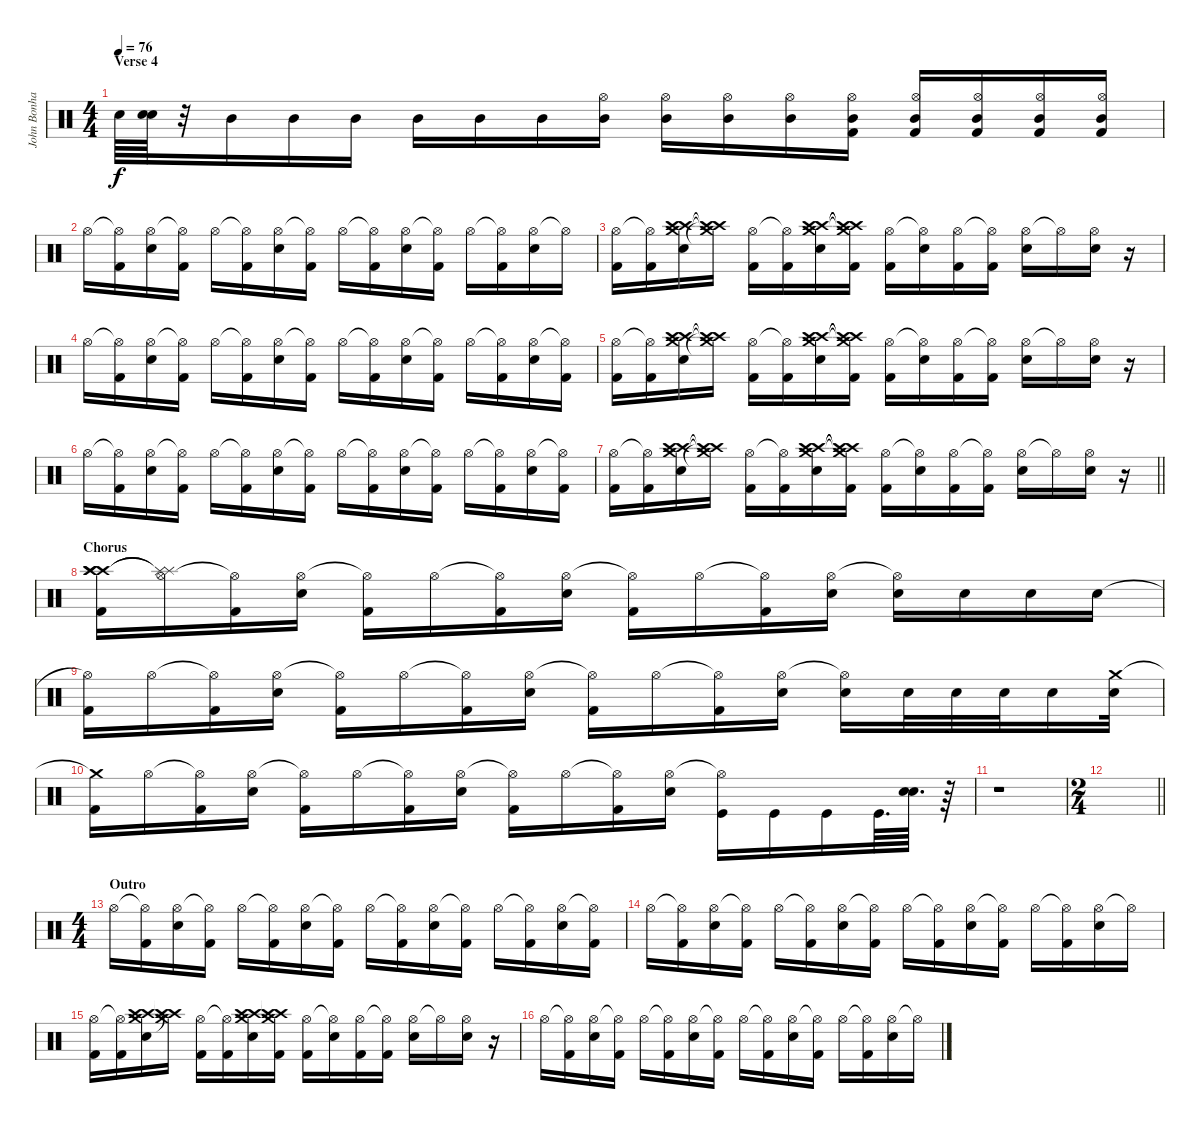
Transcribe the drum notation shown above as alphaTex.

\track ("John Bonham" "John Bonha") {instrument percussion}
\staff {score}
\articulation defaults
\ts (4 4)
\section ("" "Verse 4")
\tempo 76
\clef neutral
\ks c "Electric Snare (hit)".64{dy f}
("Snare (hit) 2" "Electric Snare (hit)").64 r.32 "Mid Tom (hit)".16 "Mid Tom (hit)".16 "Mid Tom (hit)".16 "Mid Tom (hit)".16 "Mid Tom (hit)".16 "Mid Tom (hit)".16 ("Hi-Hat (open)" "Mid Tom (hit)").16 ("Hi-Hat (open)" "Mid Tom (hit)").16 ("Hi-Hat (open)" "Mid Tom (hit)").16 ("Hi-Hat (open)" "Mid Tom (hit)").16 ("Hi-Hat (open)" "Mid Tom (hit)" "Kick (hit) 2").16 ("Hi-Hat (open)" "Mid Tom (hit)" "Kick (hit) 2").16 ("Hi-Hat (open)" "Mid Tom (hit)" "Kick (hit) 2").16 ("Hi-Hat (open)" "Mid Tom (hit)" "Kick (hit) 2").16 ("Hi-Hat (open)" "Mid Tom (hit)" "Kick (hit) 2").16 |
"Hi-Hat (open)".16 ("Hi-Hat (open)"{t} "Kick (hit) 2").16 ("Hi-Hat (open)" "Electric Snare (hit)").16 ("Hi-Hat (open)"{t} "Kick (hit) 2").16 "Hi-Hat (open)".16 ("Hi-Hat (open)"{t} "Kick (hit) 2").16 ("Hi-Hat (open)" "Electric Snare (hit)").16 ("Hi-Hat (open)"{t} "Kick (hit) 2").16 "Hi-Hat (open)".16 ("Hi-Hat (open)"{t} "Kick (hit) 2").16 ("Hi-Hat (open)" "Electric Snare (hit)").16 ("Hi-Hat (open)"{t} "Kick (hit) 2").16 "Hi-Hat (open)".16 ("Hi-Hat (open)"{t} "Kick (hit) 2").16 ("Hi-Hat (open)" "Electric Snare (hit)").16 "Hi-Hat (open)"{t}.16 |
("Hi-Hat (open)" "Kick (hit) 2").16 ("Hi-Hat (open)"{t} "Kick (hit) 2").16 ("Crash high (hit)" "Crash medium (hit)" "Electric Snare (hit)" "Crash high (hit)").16 ("Crash high (hit)"{t} "Crash medium (hit)"{t} "Crash high (hit)"{t}).16 ("Hi-Hat (open)" "Kick (hit) 2").16 ("Hi-Hat (open)"{t} "Kick (hit) 2").16 ("Crash high (hit)" "Crash medium (hit)" "Electric Snare (hit)" "Crash high (hit)").16 ("Crash high (hit)"{t} "Crash medium (hit)"{t} "Kick (hit) 2" "Crash high (hit)"{t}).16 ("Hi-Hat (open)" "Kick (hit) 2").16 ("Hi-Hat (open)"{t} "Electric Snare (hit)").16 ("Hi-Hat (open)" "Kick (hit) 2").16 ("Hi-Hat (open)"{t} "Kick (hit) 2").16 ("Hi-Hat (open)" "Electric Snare (hit)").16 "Hi-Hat (open)"{t}.16 ("Hi-Hat (open)" "Electric Snare (hit)").16 r.16 |
"Hi-Hat (open)".16 ("Hi-Hat (open)"{t} "Kick (hit) 2").16 ("Hi-Hat (open)" "Electric Snare (hit)").16 ("Hi-Hat (open)"{t} "Kick (hit) 2").16 "Hi-Hat (open)".16 ("Hi-Hat (open)"{t} "Kick (hit) 2").16 ("Hi-Hat (open)" "Electric Snare (hit)").16 ("Hi-Hat (open)"{t} "Kick (hit) 2").16 "Hi-Hat (open)".16 ("Hi-Hat (open)"{t} "Kick (hit) 2").16 ("Hi-Hat (open)" "Electric Snare (hit)").16 ("Hi-Hat (open)"{t} "Kick (hit) 2").16 "Hi-Hat (open)".16 ("Hi-Hat (open)"{t} "Kick (hit) 2").16 ("Hi-Hat (open)" "Electric Snare (hit)").16 ("Hi-Hat (open)"{t} "Kick (hit) 2").16 |
("Hi-Hat (open)" "Kick (hit) 2").16 ("Hi-Hat (open)"{t} "Kick (hit) 2").16 ("Crash high (hit)" "Crash medium (hit)" "Electric Snare (hit)" "Crash high (hit)").16 ("Crash high (hit)"{t} "Crash medium (hit)"{t} "Crash high (hit)"{t}).16 ("Hi-Hat (open)" "Kick (hit) 2").16 ("Hi-Hat (open)"{t} "Kick (hit) 2").16 ("Crash high (hit)" "Crash medium (hit)" "Electric Snare (hit)" "Crash high (hit)").16 ("Crash high (hit)"{t} "Crash medium (hit)"{t} "Kick (hit) 2" "Crash high (hit)"{t}).16 ("Hi-Hat (open)" "Kick (hit) 2").16 ("Hi-Hat (open)"{t} "Electric Snare (hit)").16 ("Hi-Hat (open)" "Kick (hit) 2").16 ("Hi-Hat (open)"{t} "Kick (hit) 2").16 ("Hi-Hat (open)" "Electric Snare (hit)").16 "Hi-Hat (open)"{t}.16 ("Hi-Hat (open)" "Electric Snare (hit)").16 r.16 |
"Hi-Hat (open)".16 ("Hi-Hat (open)"{t} "Kick (hit) 2").16 ("Hi-Hat (open)" "Electric Snare (hit)").16 ("Hi-Hat (open)"{t} "Kick (hit) 2").16 "Hi-Hat (open)".16 ("Hi-Hat (open)"{t} "Kick (hit) 2").16 ("Hi-Hat (open)" "Electric Snare (hit)").16 ("Hi-Hat (open)"{t} "Kick (hit) 2").16 "Hi-Hat (open)".16 ("Hi-Hat (open)"{t} "Kick (hit) 2").16 ("Hi-Hat (open)" "Electric Snare (hit)").16 ("Hi-Hat (open)"{t} "Kick (hit) 2").16 "Hi-Hat (open)".16 ("Hi-Hat (open)"{t} "Kick (hit) 2").16 ("Hi-Hat (open)" "Electric Snare (hit)").16 ("Hi-Hat (open)"{t} "Kick (hit) 2").16 |
\barLineRight lightlight
("Hi-Hat (open)" "Kick (hit) 2").16 ("Hi-Hat (open)"{t} "Kick (hit) 2").16 ("Crash high (hit)" "Crash medium (hit)" "Electric Snare (hit)" "Crash high (hit)").16 ("Crash high (hit)"{t} "Crash medium (hit)"{t} "Crash high (hit)"{t}).16 ("Hi-Hat (open)" "Kick (hit) 2").16 ("Hi-Hat (open)"{t} "Kick (hit) 2").16 ("Crash high (hit)" "Crash medium (hit)" "Electric Snare (hit)" "Crash high (hit)").16 ("Crash high (hit)"{t} "Crash medium (hit)"{t} "Kick (hit) 2" "Crash high (hit)"{t}).16 ("Hi-Hat (open)" "Kick (hit) 2").16 ("Hi-Hat (open)"{t} "Electric Snare (hit)").16 ("Hi-Hat (open)" "Kick (hit) 2").16 ("Hi-Hat (open)"{t} "Kick (hit) 2").16 ("Hi-Hat (open)" "Electric Snare (hit)").16 "Hi-Hat (open)"{t}.16 ("Hi-Hat (open)" "Electric Snare (hit)").16 r.16 |
\section ("" "Chorus")
("Crash high (hit)" "Crash high (hit)" "Crash high (hit)" "Kick (hit) 2").16 ("Hi-Hat (open)" "Splash (hit)"{t} "Splash (hit)"{t}).16 ("Hi-Hat (open)"{t} "Kick (hit) 2").16 ("Hi-Hat (open)" "Electric Snare (hit)").16 ("Hi-Hat (open)"{t} "Kick (hit) 2").16 "Hi-Hat (open)".16 ("Hi-Hat (open)"{t} "Kick (hit) 2").16 ("Hi-Hat (open)" "Electric Snare (hit)").16 ("Hi-Hat (open)"{t} "Kick (hit) 2").16 "Hi-Hat (open)".16 ("Hi-Hat (open)"{t} "Kick (hit) 2").16 ("Hi-Hat (open)" "Electric Snare (hit)").16 ("Hi-Hat (open)"{t} "Electric Snare (hit)").16 "Electric Snare (hit)".16 "Electric Snare (hit)".16 "Electric Snare (hit)".16 |
("Hi-Hat (open)"{t} "Kick (hit) 2").16 "Hi-Hat (open)".16 ("Hi-Hat (open)"{t} "Kick (hit) 2").16 ("Hi-Hat (open)" "Electric Snare (hit)").16 ("Hi-Hat (open)"{t} "Kick (hit) 2").16 "Hi-Hat (open)".16 ("Hi-Hat (open)"{t} "Kick (hit) 2").16 ("Hi-Hat (open)" "Electric Snare (hit)").16 ("Hi-Hat (open)"{t} "Kick (hit) 2").16 "Hi-Hat (open)".16 ("Hi-Hat (open)"{t} "Kick (hit) 2").16 ("Hi-Hat (open)" "Electric Snare (hit)").16 ("Hi-Hat (open)"{t} "Electric Snare (hit)").16 "Electric Snare (hit)".32 "Electric Snare (hit)".32 "Electric Snare (hit)".32 "Electric Snare (hit)".16 ("Crash medium (hit)" "Electric Snare (hit)").32 |
("Crash medium (hit)"{t} "Kick (hit) 2").16 "Hi-Hat (open)".16 ("Hi-Hat (open)"{t} "Kick (hit) 2").16 ("Hi-Hat (open)" "Electric Snare (hit)").16 ("Hi-Hat (open)"{t} "Kick (hit) 2").16 "Hi-Hat (open)".16 ("Hi-Hat (open)"{t} "Kick (hit) 2").16 ("Hi-Hat (open)" "Electric Snare (hit)").16 ("Hi-Hat (open)"{t} "Kick (hit) 2").16 "Hi-Hat (open)".16 ("Hi-Hat (open)"{t} "Kick (hit) 2").16 ("Hi-Hat (open)" "Electric Snare (hit)").16 ("Hi-Hat (open)"{t} "Kick (hit)").16 "Kick (hit)".16 "Kick (hit)".16 "Kick (hit)".64{d} ("Snare (hit) 2" "Electric Snare (hit)").64{d} r.64 |
r.1 |
\ts (2 4)
\barLineRight lightlight
|
\ts (4 4)
\section ("" "Outro")
"Hi-Hat (open)".16 ("Hi-Hat (open)"{t} "Kick (hit) 2").16 ("Hi-Hat (open)" "Electric Snare (hit)").16 ("Hi-Hat (open)"{t} "Kick (hit) 2").16 "Hi-Hat (open)".16 ("Hi-Hat (open)"{t} "Kick (hit) 2").16 ("Hi-Hat (open)" "Electric Snare (hit)").16 ("Hi-Hat (open)"{t} "Kick (hit) 2").16 "Hi-Hat (open)".16 ("Hi-Hat (open)"{t} "Kick (hit) 2").16 ("Hi-Hat (open)" "Electric Snare (hit)").16 ("Hi-Hat (open)"{t} "Kick (hit) 2").16 "Hi-Hat (open)".16 ("Hi-Hat (open)"{t} "Kick (hit) 2").16 ("Hi-Hat (open)" "Electric Snare (hit)").16 ("Hi-Hat (open)"{t} "Kick (hit) 2").16 |
"Hi-Hat (open)".16 ("Hi-Hat (open)"{t} "Kick (hit) 2").16 ("Hi-Hat (open)" "Electric Snare (hit)").16 ("Hi-Hat (open)"{t} "Kick (hit) 2").16 "Hi-Hat (open)".16 ("Hi-Hat (open)"{t} "Kick (hit) 2").16 ("Hi-Hat (open)" "Electric Snare (hit)").16 ("Hi-Hat (open)"{t} "Kick (hit) 2").16 "Hi-Hat (open)".16 ("Hi-Hat (open)"{t} "Kick (hit) 2").16 ("Hi-Hat (open)" "Electric Snare (hit)").16 ("Hi-Hat (open)"{t} "Kick (hit) 2").16 "Hi-Hat (open)".16 ("Hi-Hat (open)"{t} "Kick (hit) 2").16 ("Hi-Hat (open)" "Electric Snare (hit)").16 "Hi-Hat (open)"{t}.16 |
("Hi-Hat (open)" "Kick (hit) 2").16 ("Hi-Hat (open)"{t} "Kick (hit) 2").16 ("Crash high (hit)" "Crash medium (hit)" "Electric Snare (hit)" "Crash high (hit)").16 ("Crash high (hit)"{t} "Crash medium (hit)"{t} "Crash high (hit)"{t}).16 ("Hi-Hat (open)" "Kick (hit) 2").16 ("Hi-Hat (open)"{t} "Kick (hit) 2").16 ("Crash high (hit)" "Crash medium (hit)" "Electric Snare (hit)" "Crash high (hit)").16 ("Crash high (hit)"{t} "Crash medium (hit)"{t} "Kick (hit) 2" "Crash high (hit)"{t}).16 ("Hi-Hat (open)" "Kick (hit) 2").16 ("Hi-Hat (open)"{t} "Electric Snare (hit)").16 ("Hi-Hat (open)" "Kick (hit) 2").16 ("Hi-Hat (open)"{t} "Kick (hit) 2").16 ("Hi-Hat (open)" "Electric Snare (hit)").16 "Hi-Hat (open)"{t}.16 ("Hi-Hat (open)" "Electric Snare (hit)").16 r.16 |
"Hi-Hat (open)".16 ("Hi-Hat (open)"{t} "Kick (hit) 2").16 ("Hi-Hat (open)" "Electric Snare (hit)").16 ("Hi-Hat (open)"{t} "Kick (hit) 2").16 "Hi-Hat (open)".16 ("Hi-Hat (open)"{t} "Kick (hit) 2").16 ("Hi-Hat (open)" "Electric Snare (hit)").16 ("Hi-Hat (open)"{t} "Kick (hit) 2").16 "Hi-Hat (open)".16 ("Hi-Hat (open)"{t} "Kick (hit) 2").16 ("Hi-Hat (open)" "Electric Snare (hit)").16 ("Hi-Hat (open)"{t} "Kick (hit) 2").16 "Hi-Hat (open)".16 ("Hi-Hat (open)"{t} "Kick (hit) 2").16 ("Hi-Hat (open)" "Electric Snare (hit)").16 "Hi-Hat (open)"{t}.16
